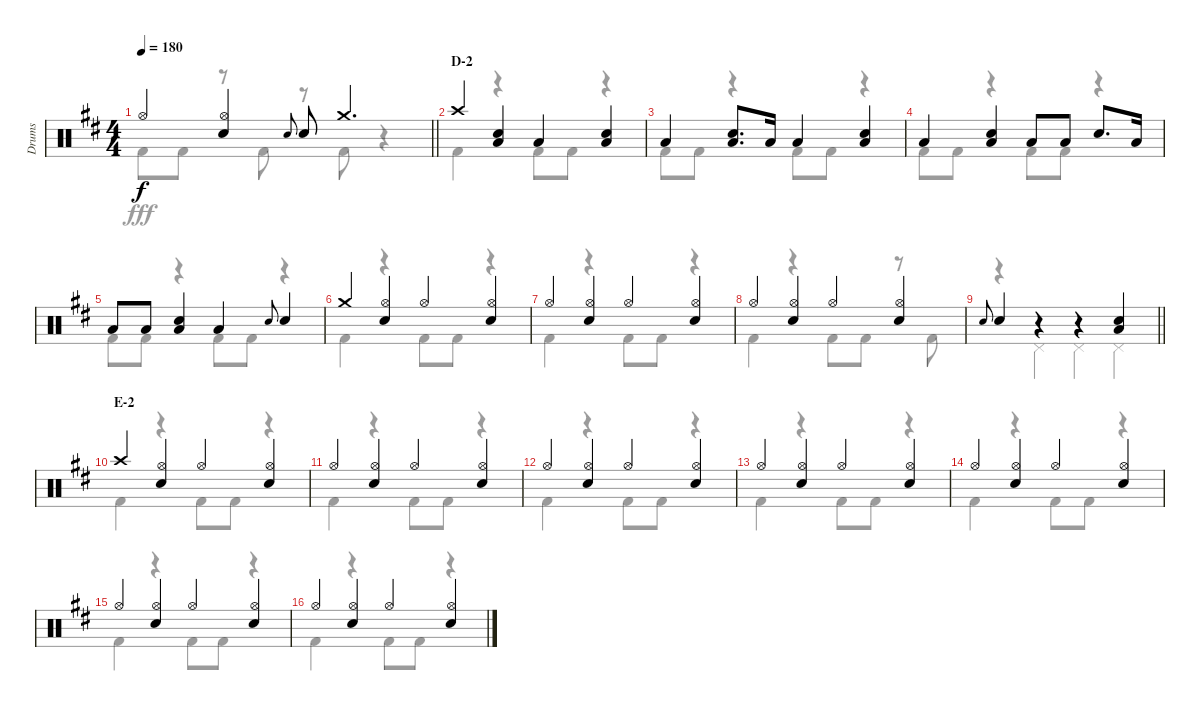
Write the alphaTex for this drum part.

\track ("Drums" "Drums") {instrument percussion}
\staff {score}
\articulation defaults
\voice
\ts (4 4)
\tempo 180
\clef neutral
\barLineRight lightlight
\ks d "Hi-Hat (open)".4{dy f}
("Hi-Hat (open)" "Snare (hit) 2").4 "Snare (hit) 2".8{gr onbeat} "Snare (hit) 2".8 "Crash medium (hit)".4{d} |
\section ("" "D-2")
"Crash high (hit)".4 ("Snare (hit) 2" "Low Tom (hit)").4 "Low Tom (hit)".4 ("Snare (hit) 2" "Low Tom (hit)").4 |
"Low Tom (hit)".4 ("Snare (hit) 2" "Low Tom (hit)").8{d} "Low Tom (hit)".16 "Low Tom (hit)".4 ("Snare (hit) 2" "Low Tom (hit)").4 |
"Low Tom (hit)".4 ("Snare (hit) 2" "Low Tom (hit)").4 "Low Tom (hit)".8 "Low Tom (hit)".8 "Snare (hit) 2".8{d} "Low Tom (hit)".16 |
"Low Tom (hit)".8 "Low Tom (hit)".8 ("Snare (hit) 2" "Low Tom (hit)").4 "Low Tom (hit)".4 "Snare (hit) 2".8{gr onbeat} "Snare (hit) 2".4 |
"Crash medium (hit)".4 ("Hi-Hat (open)" "Snare (hit) 2").4 "Hi-Hat (open)".4 ("Hi-Hat (open)" "Snare (hit) 2").4 |
"Hi-Hat (open)".4 ("Hi-Hat (open)" "Snare (hit) 2").4 "Hi-Hat (open)".4 ("Hi-Hat (open)" "Snare (hit) 2").4 |
"Hi-Hat (open)".4 ("Hi-Hat (open)" "Snare (hit) 2").4 "Hi-Hat (open)".4 ("Hi-Hat (open)" "Snare (hit) 2").4 |
\barLineRight lightlight "Snare (hit) 2".8{gr onbeat} "Snare (hit) 2".4
r.4 r.4 ("Snare (hit) 2" "Low Tom (hit)").4 |
\section ("" "E-2")
"Crash high (hit)".4 ("Hi-Hat (open)" "Snare (hit) 2").4 "Hi-Hat (open)".4 ("Hi-Hat (open)" "Snare (hit) 2").4 |
"Hi-Hat (open)".4 ("Hi-Hat (open)" "Snare (hit) 2").4 "Hi-Hat (open)".4 ("Hi-Hat (open)" "Snare (hit) 2").4 |
"Hi-Hat (open)".4 ("Hi-Hat (open)" "Snare (hit) 2").4 "Hi-Hat (open)".4 ("Hi-Hat (open)" "Snare (hit) 2").4 |
"Hi-Hat (open)".4 ("Hi-Hat (open)" "Snare (hit) 2").4 "Hi-Hat (open)".4 ("Hi-Hat (open)" "Snare (hit) 2").4 |
"Hi-Hat (open)".4 ("Hi-Hat (open)" "Snare (hit) 2").4 "Hi-Hat (open)".4 ("Hi-Hat (open)" "Snare (hit) 2").4 |
"Hi-Hat (open)".4 ("Hi-Hat (open)" "Snare (hit) 2").4 "Hi-Hat (open)".4 ("Hi-Hat (open)" "Snare (hit) 2").4 |
"Hi-Hat (open)".4 ("Hi-Hat (open)" "Snare (hit) 2").4 "Hi-Hat (open)".4 ("Hi-Hat (open)" "Snare (hit) 2").4
\voice
\clef neutral
\ottava regular
\simile none
\barLineRight lightlight
\ks d "Kick (hit) 2".8{dy fff} "Kick (hit) 2".8
r.8 "Kick (hit) 2".8 r.8 "Kick (hit) 2".8 r.4 |
"Kick (hit) 2".4 r.4 "Kick (hit) 2".8 "Kick (hit) 2".8 r.4 |
"Kick (hit) 2".8 "Kick (hit) 2".8 r.4 "Kick (hit) 2".8 "Kick (hit) 2".8 r.4 |
"Kick (hit) 2".8 "Kick (hit) 2".8 r.4 "Kick (hit) 2".8 "Kick (hit) 2".8 r.4 |
"Kick (hit) 2".8 "Kick (hit) 2".8 r.4 "Kick (hit) 2".8 "Kick (hit) 2".8 r.4 |
"Kick (hit) 2".4 r.4 "Kick (hit) 2".8 "Kick (hit) 2".8 r.4 |
"Kick (hit) 2".4 r.4 "Kick (hit) 2".8 "Kick (hit) 2".8 r.4 |
"Kick (hit) 2".4 r.4 "Kick (hit) 2".8 "Kick (hit) 2".8 r.8 "Kick (hit) 2".8 |
\barLineRight lightlight
r.4 "Pedal Hi-Hat (hit)".4 "Pedal Hi-Hat (hit)".4 "Pedal Hi-Hat (hit)".4 |
"Kick (hit) 2".4 r.4 "Kick (hit) 2".8 "Kick (hit) 2".8 r.4 |
"Kick (hit) 2".4 r.4 "Kick (hit) 2".8 "Kick (hit) 2".8 r.4 |
"Kick (hit) 2".4 r.4 "Kick (hit) 2".8 "Kick (hit) 2".8 r.4 |
"Kick (hit) 2".4 r.4 "Kick (hit) 2".8 "Kick (hit) 2".8 r.4 |
"Kick (hit) 2".4 r.4 "Kick (hit) 2".8 "Kick (hit) 2".8 r.4 |
"Kick (hit) 2".4 r.4 "Kick (hit) 2".8 "Kick (hit) 2".8 r.4 |
"Kick (hit) 2".4 r.4 "Kick (hit) 2".8 "Kick (hit) 2".8 r.4
